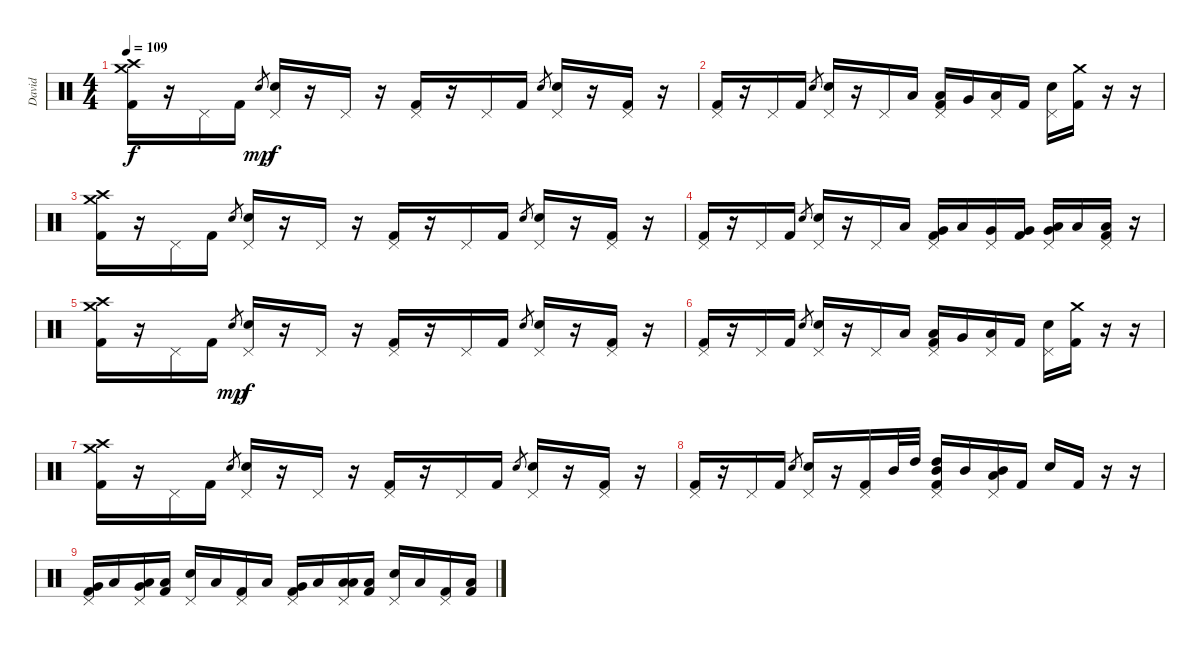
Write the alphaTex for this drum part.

\track ("David" "David") {instrument percussion}
\staff {score}
\articulation defaults
\ts (4 4)
\tempo 109
\clef neutral
\ks c
("Crash medium (hit)" "Crash high (hit)" "Kick (hit) 2").16{dy f} r.16 "Pedal Hi-Hat (hit)".16 "Kick (hit) 2".16 "Snare (hit) 2".8{gr dy mp} ("Pedal Hi-Hat (hit)" "Snare (hit) 2").16{dy f} r.16 "Pedal Hi-Hat (hit)".16 r.16 ("Pedal Hi-Hat (hit)" "Kick (hit) 2").16 r.16 "Pedal Hi-Hat (hit)".16 "Kick (hit) 2".16 "Snare (hit) 2".8{gr} ("Pedal Hi-Hat (hit)" "Snare (hit) 2").16 r.16 ("Pedal Hi-Hat (hit)" "Kick (hit) 2").16 r.16 |
("Pedal Hi-Hat (hit)" "Kick (hit) 2").16 r.16 "Pedal Hi-Hat (hit)".16 "Kick (hit) 2".16 "Snare (hit) 2".8{gr} ("Pedal Hi-Hat (hit)" "Snare (hit) 2").16 r.16 "Pedal Hi-Hat (hit)".16 "Low Tom (hit)".16 ("Pedal Hi-Hat (hit)" "Low Tom (hit)" "Kick (hit) 2").16 "Very Low Tom (hit)".16 ("Pedal Hi-Hat (hit)" "Low Floor Tom (hit)").16 "Kick (hit) 2".16 ("Pedal Hi-Hat (hit)" "Snare (hit) 2").16 ("Crash medium (hit)" "Kick (hit) 2").16 r.16 r.16 |
("Crash medium (hit)" "Crash high (hit)" "Kick (hit) 2").16 r.16 "Pedal Hi-Hat (hit)".16 "Kick (hit) 2".16 "Snare (hit) 2".8{gr} ("Pedal Hi-Hat (hit)" "Snare (hit) 2").16 r.16 "Pedal Hi-Hat (hit)".16 r.16 ("Pedal Hi-Hat (hit)" "Kick (hit) 2").16 r.16 "Pedal Hi-Hat (hit)".16 "Kick (hit) 2".16 "Snare (hit) 2".8{gr} ("Pedal Hi-Hat (hit)" "Snare (hit) 2").16 r.16 ("Pedal Hi-Hat (hit)" "Kick (hit) 2").16 r.16 |
("Pedal Hi-Hat (hit)" "Kick (hit) 2").16 r.16 "Pedal Hi-Hat (hit)".16 "Kick (hit) 2".16 "Snare (hit) 2".8{gr} ("Pedal Hi-Hat (hit)" "Snare (hit) 2").16 r.16 "Pedal Hi-Hat (hit)".16 "Low Tom (hit)".16 ("Pedal Hi-Hat (hit)" "Very Low Tom (hit)" "Kick (hit) 2").16 "Low Tom (hit)".16 ("Pedal Hi-Hat (hit)" "Very Low Tom (hit)").16 ("Very Low Tom (hit)" "Kick (hit) 2").16 ("Pedal Hi-Hat (hit)" "Very Low Tom (hit)" "Low Floor Tom (hit)").16 "Low Floor Tom (hit)".16 ("Pedal Hi-Hat (hit)" "Low Floor Tom (hit)" "Kick (hit) 2").16 r.16 |
("Crash medium (hit)" "Crash high (hit)" "Kick (hit) 2").16 r.16 "Pedal Hi-Hat (hit)".16 "Kick (hit) 2".16 "Snare (hit) 2".8{gr dy mp} ("Pedal Hi-Hat (hit)" "Snare (hit) 2").16{dy f} r.16 "Pedal Hi-Hat (hit)".16 r.16 ("Pedal Hi-Hat (hit)" "Kick (hit) 2").16 r.16 "Pedal Hi-Hat (hit)".16 "Kick (hit) 2".16 "Snare (hit) 2".8{gr} ("Pedal Hi-Hat (hit)" "Snare (hit) 2").16 r.16 ("Pedal Hi-Hat (hit)" "Kick (hit) 2").16 r.16 |
("Pedal Hi-Hat (hit)" "Kick (hit) 2").16 r.16 "Pedal Hi-Hat (hit)".16 "Kick (hit) 2".16 "Snare (hit) 2".8{gr} ("Pedal Hi-Hat (hit)" "Snare (hit) 2").16 r.16 "Pedal Hi-Hat (hit)".16 "Low Tom (hit)".16 ("Pedal Hi-Hat (hit)" "Low Tom (hit)" "Kick (hit) 2").16 "Very Low Tom (hit)".16 ("Pedal Hi-Hat (hit)" "Low Floor Tom (hit)").16 "Kick (hit) 2".16 ("Pedal Hi-Hat (hit)" "Snare (hit) 2").16 ("Crash medium (hit)" "Kick (hit) 2").16 r.16 r.16 |
("Crash medium (hit)" "Crash high (hit)" "Kick (hit) 2").16 r.16 "Pedal Hi-Hat (hit)".16 "Kick (hit) 2".16 "Snare (hit) 2".8{gr} ("Pedal Hi-Hat (hit)" "Snare (hit) 2").16 r.16 "Pedal Hi-Hat (hit)".16 r.16 ("Pedal Hi-Hat (hit)" "Kick (hit) 2").16 r.16 "Pedal Hi-Hat (hit)".16 "Kick (hit) 2".16 "Snare (hit) 2".8{gr} ("Pedal Hi-Hat (hit)" "Snare (hit) 2").16 r.16 ("Pedal Hi-Hat (hit)" "Kick (hit) 2").16 r.16 |
("Pedal Hi-Hat (hit)" "Kick (hit) 2").16 r.16 "Pedal Hi-Hat (hit)".16 "Kick (hit) 2".16 "Snare (hit) 2".8{gr} ("Pedal Hi-Hat (hit)" "Snare (hit) 2").16 r.16 ("Pedal Hi-Hat (hit)" "Kick (hit) 2").16 "Mid Tom (hit)".32 "High Tom (hit)".32 ("Pedal Hi-Hat (hit)" "High Tom (hit)" "Mid Tom (hit)" "Kick (hit) 2").16 "Mid Tom (hit)".16 ("Pedal Hi-Hat (hit)" "Low Tom (hit)" "Mid Tom (hit)").16 "Kick (hit) 2".16 "Snare (hit) 2".16 "Kick (hit) 2".16 r.16 r.16 |
("Pedal Hi-Hat (hit)" "Very Low Tom (hit)" "Kick (hit) 2").16 "Low Floor Tom (hit)".16 ("Pedal Hi-Hat (hit)" "Very Low Tom (hit)" "Low Floor Tom (hit)").16 ("Low Floor Tom (hit)" "Kick (hit) 2").16 ("Pedal Hi-Hat (hit)" "Snare (hit) 2").16 "Low Floor Tom (hit)".16 ("Pedal Hi-Hat (hit)" "Kick (hit) 2").16 "Low Floor Tom (hit)".16 ("Pedal Hi-Hat (hit)" "Very Low Tom (hit)" "Kick (hit) 2").16 "Low Floor Tom (hit)".16 ("Pedal Hi-Hat (hit)" "Low Floor Tom (hit)" "Low Floor Tom (hit)").16 ("Low Floor Tom (hit)" "Kick (hit) 2").16 ("Pedal Hi-Hat (hit)" "Snare (hit) 2").16 "Low Floor Tom (hit)".16 ("Pedal Hi-Hat (hit)" "Kick (hit) 2").16 ("Low Floor Tom (hit)" "Kick (hit) 2").16
